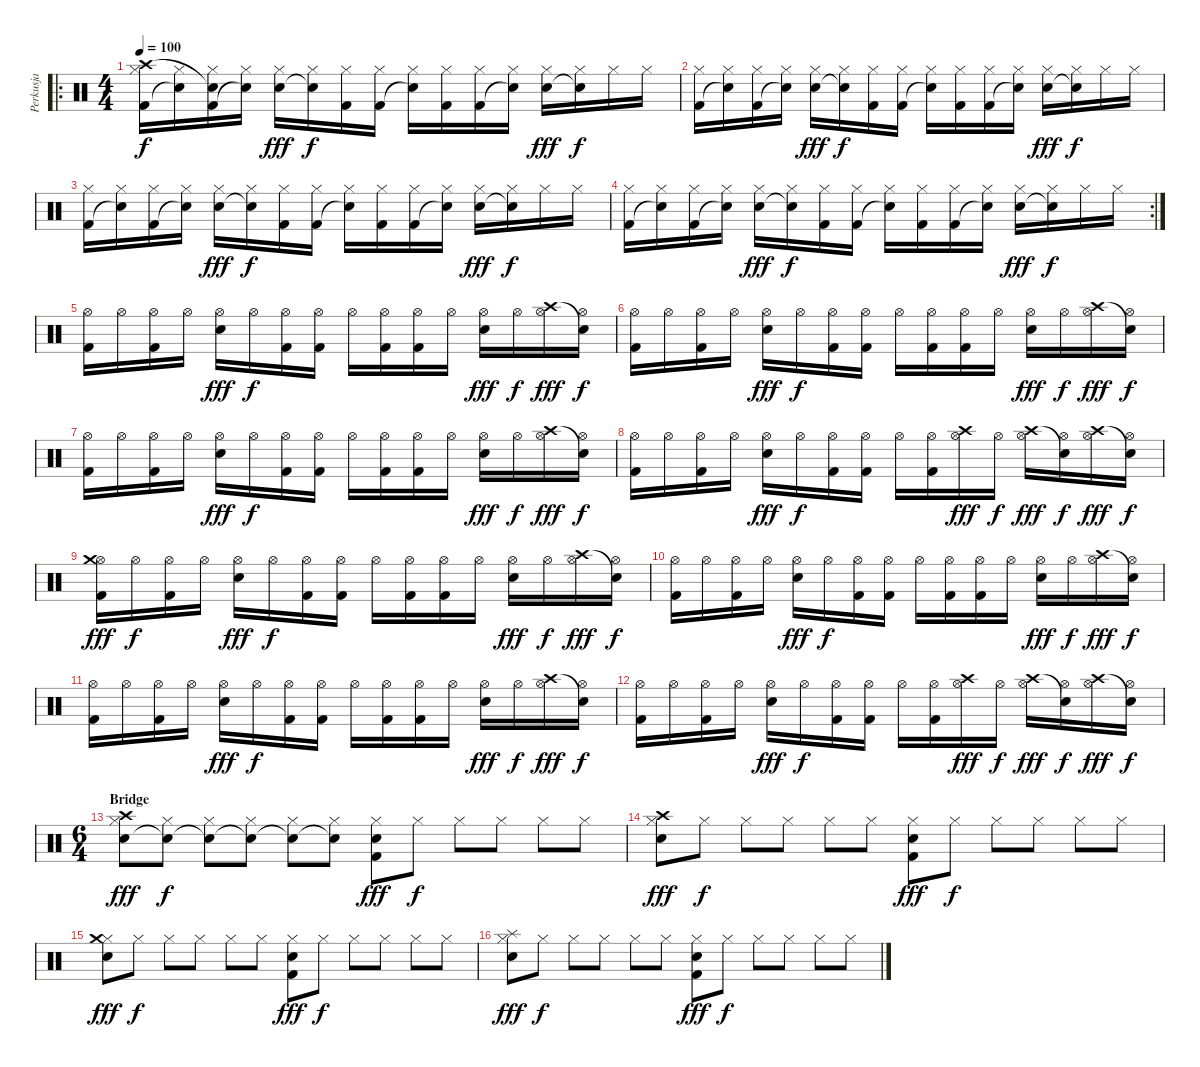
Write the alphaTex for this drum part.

\track ("Perkusja" "Perkusja") {instrument percussion}
\staff {score}
\articulation defaults
\ro
\ts (4 4)
\tempo 100
\clef neutral
\ks c
("Kick (hit) 2" "Hi-Hat (closed)" "Crash high (hit)").16{dy f} ("Snare (hit)"{t} "Hi-Hat (closed)").16 ("Kick (hit) 2" "Hi-Hat (closed)" "Snare (hit)"{t}).16 ("Snare (hit)"{t} "Hi-Hat (closed)").16 ("Snare (hit) 2" "Hi-Hat (closed)").16{dy fff} ("Snare (hit)"{t} "Hi-Hat (closed)").16{dy f} ("Kick (hit) 2" "Hi-Hat (closed)").16 ("Kick (hit) 2" "Hi-Hat (closed)").16 ("Snare (hit)"{t} "Hi-Hat (closed)").16 ("Kick (hit) 2" "Hi-Hat (closed)").16 ("Kick (hit) 2" "Hi-Hat (closed)").16 ("Snare (hit)"{t} "Hi-Hat (closed)").16 ("Snare (hit) 2" "Hi-Hat (closed)").16{dy fff} ("Snare (hit)"{t} "Hi-Hat (closed)").16{dy f} "Hi-Hat (closed)".16 "Hi-Hat (closed)".16 |
("Kick (hit) 2" "Hi-Hat (closed)").16 ("Snare (hit)"{t} "Hi-Hat (closed)").16 ("Kick (hit) 2" "Hi-Hat (closed)").16 ("Snare (hit)"{t} "Hi-Hat (closed)").16 ("Snare (hit) 2" "Hi-Hat (closed)").16{dy fff} ("Snare (hit)"{t} "Hi-Hat (closed)").16{dy f} ("Kick (hit) 2" "Hi-Hat (closed)").16 ("Kick (hit) 2" "Hi-Hat (closed)").16 ("Snare (hit)"{t} "Hi-Hat (closed)").16 ("Kick (hit) 2" "Hi-Hat (closed)").16 ("Kick (hit) 2" "Hi-Hat (closed)").16 ("Snare (hit)"{t} "Hi-Hat (closed)").16 ("Snare (hit) 2" "Hi-Hat (closed)").16{dy fff} ("Snare (hit)"{t} "Hi-Hat (closed)").16{dy f} "Hi-Hat (closed)".16 "Hi-Hat (closed)".16 |
("Kick (hit) 2" "Hi-Hat (closed)").16 ("Snare (hit)"{t} "Hi-Hat (closed)").16 ("Kick (hit) 2" "Hi-Hat (closed)").16 ("Snare (hit)"{t} "Hi-Hat (closed)").16 ("Snare (hit) 2" "Hi-Hat (closed)").16{dy fff} ("Snare (hit)"{t} "Hi-Hat (closed)").16{dy f} ("Kick (hit) 2" "Hi-Hat (closed)").16 ("Kick (hit) 2" "Hi-Hat (closed)").16 ("Snare (hit)"{t} "Hi-Hat (closed)").16 ("Kick (hit) 2" "Hi-Hat (closed)").16 ("Kick (hit) 2" "Hi-Hat (closed)").16 ("Snare (hit)"{t} "Hi-Hat (closed)").16 ("Snare (hit) 2" "Hi-Hat (closed)").16{dy fff} ("Snare (hit)"{t} "Hi-Hat (closed)").16{dy f} "Hi-Hat (closed)".16 "Hi-Hat (closed)".16 |
\rc 2
("Kick (hit) 2" "Hi-Hat (closed)").16 ("Snare (hit)"{t} "Hi-Hat (closed)").16 ("Kick (hit) 2" "Hi-Hat (closed)").16 ("Snare (hit)"{t} "Hi-Hat (closed)").16 ("Snare (hit) 2" "Hi-Hat (closed)").16{dy fff} ("Snare (hit)"{t} "Hi-Hat (closed)").16{dy f} ("Kick (hit) 2" "Hi-Hat (closed)").16 ("Kick (hit) 2" "Hi-Hat (closed)").16 ("Snare (hit)"{t} "Hi-Hat (closed)").16 ("Kick (hit) 2" "Hi-Hat (closed)").16 ("Kick (hit) 2" "Hi-Hat (closed)").16 ("Snare (hit)"{t} "Hi-Hat (closed)").16 ("Snare (hit) 2" "Hi-Hat (closed)").16{dy fff} ("Snare (hit)"{t} "Hi-Hat (closed)").16{dy f} "Hi-Hat (closed)".16 "Hi-Hat (closed)".16 |
("Hi-Hat (open)" "Kick (hit) 2").16 "Hi-Hat (open)".16 ("Hi-Hat (open)" "Kick (hit) 2").16 "Hi-Hat (open)".16 ("Hi-Hat (open)" "Snare (hit) 2").16{dy fff} "Hi-Hat (open)".16{dy f} ("Hi-Hat (open)" "Kick (hit) 2").16 ("Hi-Hat (open)" "Kick (hit) 2").16 "Hi-Hat (open)".16 ("Hi-Hat (open)" "Kick (hit) 2").16 ("Hi-Hat (open)" "Kick (hit) 2").16 "Hi-Hat (open)".16 ("Hi-Hat (open)" "Snare (hit) 2").16{dy fff} "Hi-Hat (open)".16{dy f} ("Hi-Hat (open)" "Crash high (hit)").16{dy fff} ("Hi-Hat (open)" "Snare (hit)"{t}).16{dy f} |
("Hi-Hat (open)" "Kick (hit) 2").16 "Hi-Hat (open)".16 ("Hi-Hat (open)" "Kick (hit) 2").16 "Hi-Hat (open)".16 ("Hi-Hat (open)" "Snare (hit) 2").16{dy fff} "Hi-Hat (open)".16{dy f} ("Hi-Hat (open)" "Kick (hit) 2").16 ("Hi-Hat (open)" "Kick (hit) 2").16 "Hi-Hat (open)".16 ("Hi-Hat (open)" "Kick (hit) 2").16 ("Hi-Hat (open)" "Kick (hit) 2").16 "Hi-Hat (open)".16 ("Hi-Hat (open)" "Snare (hit) 2").16{dy fff} "Hi-Hat (open)".16{dy f} ("Hi-Hat (open)" "Crash high (hit)").16{dy fff} ("Hi-Hat (open)" "Snare (hit)"{t}).16{dy f} |
("Hi-Hat (open)" "Kick (hit) 2").16 "Hi-Hat (open)".16 ("Hi-Hat (open)" "Kick (hit) 2").16 "Hi-Hat (open)".16 ("Hi-Hat (open)" "Snare (hit) 2").16{dy fff} "Hi-Hat (open)".16{dy f} ("Hi-Hat (open)" "Kick (hit) 2").16 ("Hi-Hat (open)" "Kick (hit) 2").16 "Hi-Hat (open)".16 ("Hi-Hat (open)" "Kick (hit) 2").16 ("Hi-Hat (open)" "Kick (hit) 2").16 "Hi-Hat (open)".16 ("Hi-Hat (open)" "Snare (hit) 2").16{dy fff} "Hi-Hat (open)".16{dy f} ("Hi-Hat (open)" "Crash high (hit)").16{dy fff} ("Hi-Hat (open)" "Snare (hit)"{t}).16{dy f} |
("Hi-Hat (open)" "Kick (hit) 2").16 "Hi-Hat (open)".16 ("Hi-Hat (open)" "Kick (hit) 2").16 "Hi-Hat (open)".16 ("Hi-Hat (open)" "Snare (hit) 2").16{dy fff} "Hi-Hat (open)".16{dy f} ("Hi-Hat (open)" "Kick (hit) 2").16 ("Hi-Hat (open)" "Kick (hit) 2").16 "Hi-Hat (open)".16 ("Hi-Hat (open)" "Kick (hit) 2").16 ("Hi-Hat (open)" "Crash high (hit)").16{dy fff} "Hi-Hat (open)".16{dy f} ("Hi-Hat (open)" "Crash high (hit)").16{dy fff} ("Hi-Hat (open)" "Snare (hit)"{t}).16{dy f} ("Hi-Hat (open)" "Crash high (hit)").16{dy fff} ("Hi-Hat (open)" "Snare (hit)"{t}).16{dy f} |
("Hi-Hat (open)" "Kick (hit) 2" "Crash medium (hit)").16{dy fff} "Hi-Hat (open)".16{dy f} ("Hi-Hat (open)" "Kick (hit) 2").16 "Hi-Hat (open)".16 ("Hi-Hat (open)" "Snare (hit) 2").16{dy fff} "Hi-Hat (open)".16{dy f} ("Hi-Hat (open)" "Kick (hit) 2").16 ("Hi-Hat (open)" "Kick (hit) 2").16 "Hi-Hat (open)".16 ("Hi-Hat (open)" "Kick (hit) 2").16 ("Hi-Hat (open)" "Kick (hit) 2").16 "Hi-Hat (open)".16 ("Hi-Hat (open)" "Snare (hit) 2").16{dy fff} "Hi-Hat (open)".16{dy f} ("Hi-Hat (open)" "Crash high (hit)").16{dy fff} ("Hi-Hat (open)" "Snare (hit)"{t}).16{dy f} |
("Hi-Hat (open)" "Kick (hit) 2").16 "Hi-Hat (open)".16 ("Hi-Hat (open)" "Kick (hit) 2").16 "Hi-Hat (open)".16 ("Hi-Hat (open)" "Snare (hit) 2").16{dy fff} "Hi-Hat (open)".16{dy f} ("Hi-Hat (open)" "Kick (hit) 2").16 ("Hi-Hat (open)" "Kick (hit) 2").16 "Hi-Hat (open)".16 ("Hi-Hat (open)" "Kick (hit) 2").16 ("Hi-Hat (open)" "Kick (hit) 2").16 "Hi-Hat (open)".16 ("Hi-Hat (open)" "Snare (hit) 2").16{dy fff} "Hi-Hat (open)".16{dy f} ("Hi-Hat (open)" "Crash high (hit)").16{dy fff} ("Hi-Hat (open)" "Snare (hit)"{t}).16{dy f} |
("Hi-Hat (open)" "Kick (hit) 2").16 "Hi-Hat (open)".16 ("Hi-Hat (open)" "Kick (hit) 2").16 "Hi-Hat (open)".16 ("Hi-Hat (open)" "Snare (hit) 2").16{dy fff} "Hi-Hat (open)".16{dy f} ("Hi-Hat (open)" "Kick (hit) 2").16 ("Hi-Hat (open)" "Kick (hit) 2").16 "Hi-Hat (open)".16 ("Hi-Hat (open)" "Kick (hit) 2").16 ("Hi-Hat (open)" "Kick (hit) 2").16 "Hi-Hat (open)".16 ("Hi-Hat (open)" "Snare (hit) 2").16{dy fff} "Hi-Hat (open)".16{dy f} ("Hi-Hat (open)" "Crash high (hit)").16{dy fff} ("Hi-Hat (open)" "Snare (hit)"{t}).16{dy f} |
("Hi-Hat (open)" "Kick (hit) 2").16 "Hi-Hat (open)".16 ("Hi-Hat (open)" "Kick (hit) 2").16 "Hi-Hat (open)".16 ("Hi-Hat (open)" "Snare (hit) 2").16{dy fff} "Hi-Hat (open)".16{dy f} ("Hi-Hat (open)" "Kick (hit) 2").16 ("Hi-Hat (open)" "Kick (hit) 2").16 "Hi-Hat (open)".16 ("Hi-Hat (open)" "Kick (hit) 2").16 ("Hi-Hat (open)" "Crash high (hit)").16{dy fff} "Hi-Hat (open)".16{dy f} ("Hi-Hat (open)" "Crash high (hit)").16{dy fff} ("Hi-Hat (open)" "Snare (hit)"{t}).16{dy f} ("Hi-Hat (open)" "Crash high (hit)").16{dy fff} ("Hi-Hat (open)" "Snare (hit)"{t}).16{dy f} |
\ts (6 4)
\section ("" "Bridge")
("Hi-Hat (closed)" "Snare (hit) 2" "Crash high (hit)").8{dy fff} ("Hi-Hat (closed)" "Snare (hit)"{t}).8{dy f} ("Hi-Hat (closed)" "Snare (hit)"{t}).8 ("Hi-Hat (closed)" "Snare (hit)"{t}).8 ("Hi-Hat (closed)" "Snare (hit)"{t}).8 ("Hi-Hat (closed)" "Snare (hit)"{t}).8 ("Hi-Hat (closed)" "Snare (hit) 2" "Kick (hit) 2").8{dy fff} "Hi-Hat (closed)".8{dy f} "Hi-Hat (closed)".8 "Hi-Hat (closed)".8 "Hi-Hat (closed)".8 "Hi-Hat (closed)".8 |
("Hi-Hat (closed)" "Snare (hit) 2" "Crash high (hit)").8{dy fff} "Hi-Hat (closed)".8{dy f} "Hi-Hat (closed)".8 "Hi-Hat (closed)".8 "Hi-Hat (closed)".8 "Hi-Hat (closed)".8 ("Hi-Hat (closed)" "Snare (hit) 2" "Kick (hit) 2").8{dy fff} "Hi-Hat (closed)".8{dy f} "Hi-Hat (closed)".8 "Hi-Hat (closed)".8 "Hi-Hat (closed)".8 "Hi-Hat (closed)".8 |
("Hi-Hat (closed)" "Snare (hit) 2" "Crash medium (hit)").8{dy fff} "Hi-Hat (closed)".8{dy f} "Hi-Hat (closed)".8 "Hi-Hat (closed)".8 "Hi-Hat (closed)".8 "Hi-Hat (closed)".8 ("Hi-Hat (closed)" "Snare (hit) 2" "Kick (hit) 2").8{dy fff} "Hi-Hat (closed)".8{dy f} "Hi-Hat (closed)".8 "Hi-Hat (closed)".8 "Hi-Hat (closed)".8 "Hi-Hat (closed)".8 |
("Hi-Hat (closed)" "Snare (hit) 2" "Splash (hit)").8{dy fff} "Hi-Hat (closed)".8{dy f} "Hi-Hat (closed)".8 "Hi-Hat (closed)".8 "Hi-Hat (closed)".8 "Hi-Hat (closed)".8 ("Hi-Hat (closed)" "Snare (hit) 2" "Kick (hit) 2").8{dy fff} "Hi-Hat (closed)".8{dy f} "Hi-Hat (closed)".8 "Hi-Hat (closed)".8 "Hi-Hat (closed)".8 "Hi-Hat (closed)".8
